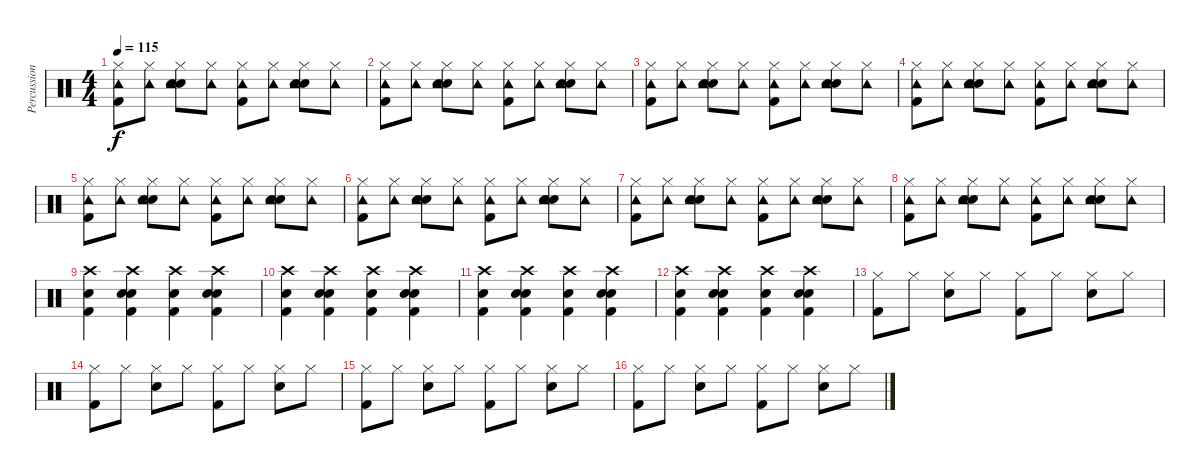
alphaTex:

\track ("Percussion" "Percussion") {instrument percussion}
\staff {score}
\articulation defaults
\ts (4 4)
\tempo 115
\clef neutral
\ks c
("Hi-Hat (closed)" "Tambourine (hit)" "Kick (hit) 2").8{dy f} ("Hi-Hat (closed)" "Tambourine (hit)").8 ("Hi-Hat (closed)" "Hand Clap (hit)" "Snare (hit) 2" "Tambourine (hit)").8 ("Hi-Hat (closed)" "Tambourine (hit)").8 ("Hi-Hat (closed)" "Tambourine (hit)" "Kick (hit) 2").8 ("Hi-Hat (closed)" "Tambourine (hit)").8 ("Hi-Hat (closed)" "Hand Clap (hit)" "Snare (hit) 2" "Tambourine (hit)").8 ("Hi-Hat (closed)" "Tambourine (hit)").8 |
("Hi-Hat (closed)" "Tambourine (hit)" "Kick (hit) 2").8 ("Hi-Hat (closed)" "Tambourine (hit)").8 ("Hi-Hat (closed)" "Hand Clap (hit)" "Snare (hit) 2" "Tambourine (hit)").8 ("Hi-Hat (closed)" "Tambourine (hit)").8 ("Hi-Hat (closed)" "Tambourine (hit)" "Kick (hit) 2").8 ("Hi-Hat (closed)" "Tambourine (hit)").8 ("Hi-Hat (closed)" "Hand Clap (hit)" "Snare (hit) 2" "Tambourine (hit)").8 ("Hi-Hat (closed)" "Tambourine (hit)").8 |
("Hi-Hat (closed)" "Tambourine (hit)" "Kick (hit) 2").8 ("Hi-Hat (closed)" "Tambourine (hit)").8 ("Hi-Hat (closed)" "Hand Clap (hit)" "Snare (hit) 2" "Tambourine (hit)").8 ("Hi-Hat (closed)" "Tambourine (hit)").8 ("Hi-Hat (closed)" "Tambourine (hit)" "Kick (hit) 2").8 ("Hi-Hat (closed)" "Tambourine (hit)").8 ("Hi-Hat (closed)" "Hand Clap (hit)" "Snare (hit) 2" "Tambourine (hit)").8 ("Hi-Hat (closed)" "Tambourine (hit)").8 |
("Hi-Hat (closed)" "Tambourine (hit)" "Kick (hit) 2").8 ("Hi-Hat (closed)" "Tambourine (hit)").8 ("Hi-Hat (closed)" "Hand Clap (hit)" "Snare (hit) 2" "Tambourine (hit)").8 ("Hi-Hat (closed)" "Tambourine (hit)").8 ("Hi-Hat (closed)" "Tambourine (hit)" "Kick (hit) 2").8 ("Hi-Hat (closed)" "Tambourine (hit)").8 ("Hi-Hat (closed)" "Hand Clap (hit)" "Snare (hit) 2" "Tambourine (hit)").8 ("Hi-Hat (closed)" "Tambourine (hit)").8 |
("Hi-Hat (closed)" "Tambourine (hit)" "Kick (hit) 2").8 ("Hi-Hat (closed)" "Tambourine (hit)").8 ("Hi-Hat (closed)" "Hand Clap (hit)" "Snare (hit) 2" "Tambourine (hit)").8 ("Hi-Hat (closed)" "Tambourine (hit)").8 ("Hi-Hat (closed)" "Tambourine (hit)" "Kick (hit) 2").8 ("Hi-Hat (closed)" "Tambourine (hit)").8 ("Hi-Hat (closed)" "Hand Clap (hit)" "Snare (hit) 2" "Tambourine (hit)").8 ("Hi-Hat (closed)" "Tambourine (hit)").8 |
("Hi-Hat (closed)" "Tambourine (hit)" "Kick (hit) 2").8 ("Hi-Hat (closed)" "Tambourine (hit)").8 ("Hi-Hat (closed)" "Hand Clap (hit)" "Snare (hit) 2" "Tambourine (hit)").8 ("Hi-Hat (closed)" "Tambourine (hit)").8 ("Hi-Hat (closed)" "Tambourine (hit)" "Kick (hit) 2").8 ("Hi-Hat (closed)" "Tambourine (hit)").8 ("Hi-Hat (closed)" "Hand Clap (hit)" "Snare (hit) 2" "Tambourine (hit)").8 ("Hi-Hat (closed)" "Tambourine (hit)").8 |
("Hi-Hat (closed)" "Tambourine (hit)" "Kick (hit) 2").8 ("Hi-Hat (closed)" "Tambourine (hit)").8 ("Hi-Hat (closed)" "Hand Clap (hit)" "Snare (hit) 2" "Tambourine (hit)").8 ("Hi-Hat (closed)" "Tambourine (hit)").8 ("Hi-Hat (closed)" "Tambourine (hit)" "Kick (hit) 2").8 ("Hi-Hat (closed)" "Tambourine (hit)").8 ("Hi-Hat (closed)" "Hand Clap (hit)" "Snare (hit) 2" "Tambourine (hit)").8 ("Hi-Hat (closed)" "Tambourine (hit)").8 |
("Hi-Hat (closed)" "Tambourine (hit)" "Kick (hit) 2").8 ("Hi-Hat (closed)" "Tambourine (hit)").8 ("Hi-Hat (closed)" "Hand Clap (hit)" "Snare (hit) 2" "Tambourine (hit)").8 ("Hi-Hat (closed)" "Tambourine (hit)").8 ("Hi-Hat (closed)" "Tambourine (hit)" "Kick (hit) 2").8 ("Hi-Hat (closed)" "Tambourine (hit)").8 ("Hi-Hat (closed)" "Hand Clap (hit)" "Snare (hit) 2" "Tambourine (hit)").8 ("Hi-Hat (closed)" "Tambourine (hit)").8 |
("Crash high (hit)" "Snare (hit) 2" "Kick (hit) 2").4 ("Crash high (hit)" "Hand Clap (hit)" "Snare (hit) 2" "Kick (hit) 2").4 ("Crash high (hit)" "Snare (hit) 2" "Kick (hit) 2").4 ("Crash high (hit)" "Hand Clap (hit)" "Snare (hit) 2" "Kick (hit) 2").4 |
("Crash high (hit)" "Snare (hit) 2" "Kick (hit) 2").4 ("Crash high (hit)" "Hand Clap (hit)" "Snare (hit) 2" "Kick (hit) 2").4 ("Crash high (hit)" "Snare (hit) 2" "Kick (hit) 2").4 ("Crash high (hit)" "Hand Clap (hit)" "Snare (hit) 2" "Kick (hit) 2").4 |
("Crash high (hit)" "Snare (hit) 2" "Kick (hit) 2").4 ("Crash high (hit)" "Hand Clap (hit)" "Snare (hit) 2" "Kick (hit) 2").4 ("Crash high (hit)" "Snare (hit) 2" "Kick (hit) 2").4 ("Crash high (hit)" "Hand Clap (hit)" "Snare (hit) 2" "Kick (hit) 2").4 |
("Crash high (hit)" "Snare (hit) 2" "Kick (hit) 2").4 ("Crash high (hit)" "Hand Clap (hit)" "Snare (hit) 2" "Kick (hit) 2").4 ("Crash high (hit)" "Snare (hit) 2" "Kick (hit) 2").4 ("Crash high (hit)" "Hand Clap (hit)" "Snare (hit) 2" "Kick (hit) 2").4 |
("Hi-Hat (closed)" "Kick (hit) 2").8 "Hi-Hat (closed)".8 ("Hi-Hat (closed)" "Snare (hit) 2").8 "Hi-Hat (closed)".8 ("Hi-Hat (closed)" "Kick (hit) 2").8 "Hi-Hat (closed)".8 ("Hi-Hat (closed)" "Snare (hit) 2").8 "Hi-Hat (closed)".8 |
("Hi-Hat (closed)" "Kick (hit) 2").8 "Hi-Hat (closed)".8 ("Hi-Hat (closed)" "Snare (hit) 2").8 "Hi-Hat (closed)".8 ("Hi-Hat (closed)" "Kick (hit) 2").8 "Hi-Hat (closed)".8 ("Hi-Hat (closed)" "Snare (hit) 2").8 "Hi-Hat (closed)".8 |
("Hi-Hat (closed)" "Kick (hit) 2").8 "Hi-Hat (closed)".8 ("Hi-Hat (closed)" "Snare (hit) 2").8 "Hi-Hat (closed)".8 ("Hi-Hat (closed)" "Kick (hit) 2").8 "Hi-Hat (closed)".8 ("Hi-Hat (closed)" "Snare (hit) 2").8 "Hi-Hat (closed)".8 |
("Hi-Hat (closed)" "Kick (hit) 2").8 "Hi-Hat (closed)".8 ("Hi-Hat (closed)" "Snare (hit) 2").8 "Hi-Hat (closed)".8 ("Hi-Hat (closed)" "Kick (hit) 2").8 "Hi-Hat (closed)".8 ("Hi-Hat (closed)" "Snare (hit) 2").8 "Hi-Hat (closed)".8
